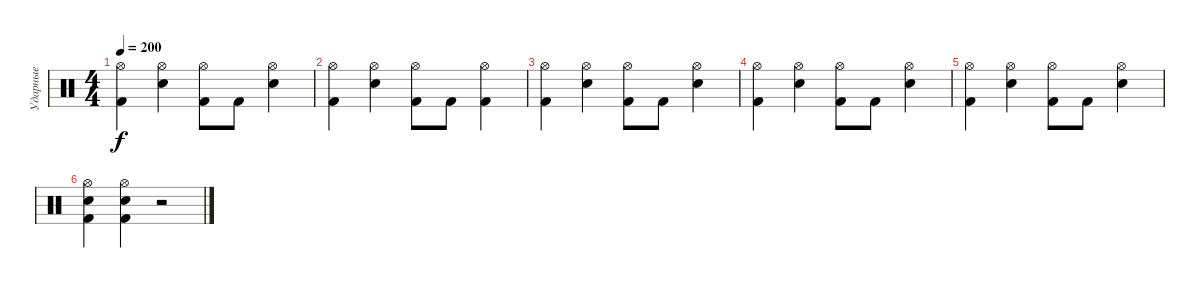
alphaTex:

\track ("Ударные" "Ударные") {instrument percussion}
\staff {score}
\articulation defaults
\ts (4 4)
\tempo 200
\clef neutral
\ks c
("Hi-Hat (open)" "Kick (hit) 2").4{dy f} ("Hi-Hat (open)" "Snare (hit) 2").4 ("Hi-Hat (open)" "Kick (hit) 2").8 "Kick (hit) 2".8 ("Hi-Hat (open)" "Snare (hit) 2").4 |
("Hi-Hat (open)" "Kick (hit) 2").4 ("Hi-Hat (open)" "Snare (hit) 2").4 ("Hi-Hat (open)" "Kick (hit) 2").8 "Kick (hit) 2".8 ("Hi-Hat (open)" "Kick (hit) 2").4 |
("Hi-Hat (open)" "Kick (hit) 2").4 ("Hi-Hat (open)" "Snare (hit) 2").4 ("Hi-Hat (open)" "Kick (hit) 2").8 "Kick (hit) 2".8 ("Hi-Hat (open)" "Snare (hit) 2").4 |
("Hi-Hat (open)" "Kick (hit) 2").4 ("Hi-Hat (open)" "Snare (hit) 2").4 ("Hi-Hat (open)" "Kick (hit) 2").8 "Kick (hit) 2".8 ("Hi-Hat (open)" "Snare (hit) 2").4 |
("Hi-Hat (open)" "Kick (hit) 2").4 ("Hi-Hat (open)" "Snare (hit) 2").4 ("Hi-Hat (open)" "Kick (hit) 2").8 "Kick (hit) 2".8 ("Hi-Hat (open)" "Snare (hit) 2").4 |
("Hi-Hat (open)" "Snare (hit) 2" "Kick (hit) 2").4 ("Hi-Hat (open)" "Snare (hit) 2" "Kick (hit) 2").4 r.2
